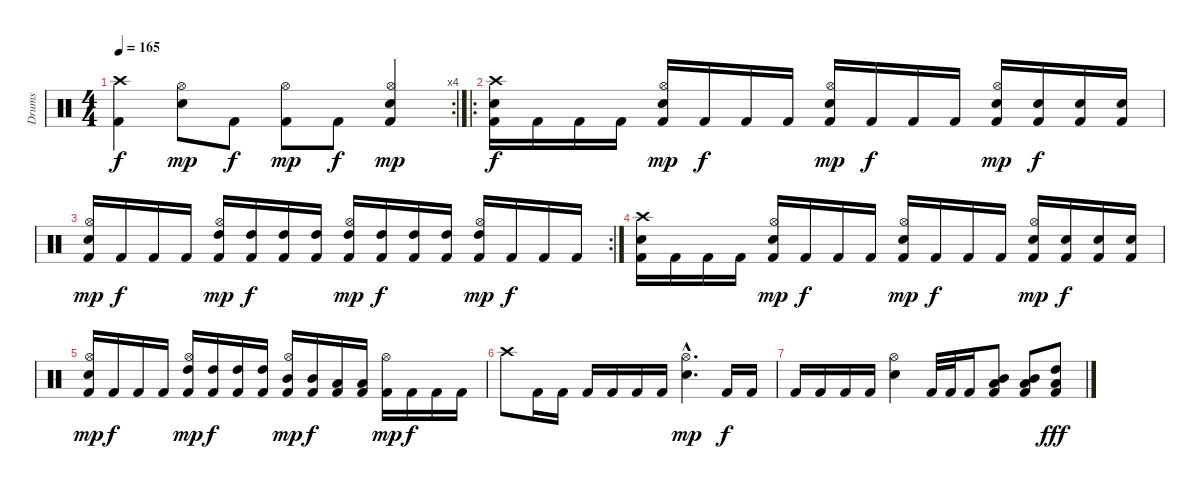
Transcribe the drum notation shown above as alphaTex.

\track ("Drums" "Drums") {instrument percussion}
\staff {score}
\articulation defaults
\rc 4
\ts (4 4)
\tempo 165
\clef neutral
\ks c
("Crash high (hit)" "Kick (hit) 2").4{dy f} ("Hi-Hat (open)" "Electric Snare (hit)").8{dy mp} "Kick (hit) 2".8{dy f} ("Hi-Hat (open)" "Kick (hit) 2").8{dy mp} "Kick (hit) 2".8{dy f} ("Hi-Hat (open)" "Electric Snare (hit)" "Kick (hit) 2").4{dy mp} |
\ro
("Crash high (hit)" "Electric Snare (hit)" "Kick (hit) 2").16{dy f} "Kick (hit) 2".16 "Kick (hit) 2".16 "Kick (hit) 2".16 ("Hi-Hat (open)" "Electric Snare (hit)" "Kick (hit) 2").16{dy mp} "Kick (hit) 2".16{dy f} "Kick (hit) 2".16 "Kick (hit) 2".16 ("Hi-Hat (open)" "Electric Snare (hit)" "Kick (hit) 2").16{dy mp} "Kick (hit) 2".16{dy f} "Kick (hit) 2".16 "Kick (hit) 2".16 ("Hi-Hat (open)" "Electric Snare (hit)" "Kick (hit) 2").16{dy mp} ("Electric Snare (hit)" "Kick (hit) 2").16{dy f} ("Electric Snare (hit)" "Kick (hit) 2").16 ("Electric Snare (hit)" "Kick (hit) 2").16 |
\rc 2
("Hi-Hat (open)" "Electric Snare (hit)" "Kick (hit) 2").16{dy mp} "Kick (hit) 2".16{dy f} "Kick (hit) 2".16 "Kick (hit) 2".16 ("Hi-Hat (open)" "High Tom (hit)" "Kick (hit) 2").16{dy mp} ("High Tom (hit)" "Kick (hit) 2").16{dy f} ("High Tom (hit)" "Kick (hit) 2").16 ("High Tom (hit)" "Kick (hit) 2").16 ("Hi-Hat (open)" "High Tom (hit)" "Kick (hit) 2").16{dy mp} ("High Tom (hit)" "Kick (hit) 2").16{dy f} ("High Tom (hit)" "Kick (hit) 2").16 ("High Tom (hit)" "Kick (hit) 2").16 ("Hi-Hat (open)" "High Tom (hit)" "Kick (hit) 2").16{dy mp} "Kick (hit) 2".16{dy f} "Kick (hit) 2".16 "Kick (hit) 2".16 |
("Crash high (hit)" "Electric Snare (hit)" "Kick (hit) 2").16 "Kick (hit) 2".16 "Kick (hit) 2".16 "Kick (hit) 2".16 ("Hi-Hat (open)" "Electric Snare (hit)" "Kick (hit) 2").16{dy mp} "Kick (hit) 2".16{dy f} "Kick (hit) 2".16 "Kick (hit) 2".16 ("Hi-Hat (open)" "Electric Snare (hit)" "Kick (hit) 2").16{dy mp} "Kick (hit) 2".16{dy f} "Kick (hit) 2".16 "Kick (hit) 2".16 ("Hi-Hat (open)" "Electric Snare (hit)" "Kick (hit) 2").16{dy mp} ("Electric Snare (hit)" "Kick (hit) 2").16{dy f} ("Electric Snare (hit)" "Kick (hit) 2").16 ("Electric Snare (hit)" "Kick (hit) 2").16 |
("Hi-Hat (open)" "Electric Snare (hit)" "Kick (hit) 2").16{dy mp} "Kick (hit) 2".16{dy f} "Kick (hit) 2".16 "Kick (hit) 2".16 ("Hi-Hat (open)" "High Tom (hit)" "Kick (hit) 2").16{dy mp} ("High Tom (hit)" "Kick (hit) 2").16{dy f} ("High Tom (hit)" "Kick (hit) 2").16 ("High Tom (hit)" "Kick (hit) 2").16 ("Hi-Hat (open)" "Mid Tom (hit)" "Kick (hit) 2").16{dy mp} ("Mid Tom (hit)" "Kick (hit) 2").16{dy f} ("Low Tom (hit)" "Kick (hit) 2").16 ("Low Tom (hit)" "Kick (hit) 2").16 ("Hi-Hat (open)" "Kick (hit) 2").16{dy mp} "Kick (hit) 2".16{dy f} "Kick (hit) 2".16 "Kick (hit) 2".16 |
"Crash high (hit)".8 "Kick (hit) 2".16 "Kick (hit) 2".16 "Kick (hit) 2".16 "Kick (hit) 2".16 "Kick (hit) 2".16 "Kick (hit) 2".16 ("Hi-Hat (open)"{hac} "Electric Snare (hit)"{hac}).4{d dy mp} "Kick (hit) 2".16{dy f} "Kick (hit) 2".16 |
"Kick (hit) 2".16 "Kick (hit) 2".16 "Kick (hit) 2".16 "Kick (hit) 2".16 ("Hi-Hat (open)" "Electric Snare (hit)").4 "Kick (hit) 2".32 "Kick (hit) 2".32 "Kick (hit) 2".16 ("Mid Tom (hit)" "Low Tom (hit)" "Kick (hit) 2").8 ("Mid Tom (hit)" "Low Tom (hit)" "Kick (hit) 2").8 ("High Tom (hit)" "Low Tom (hit)" "Kick (hit) 2").8{dy fff}
